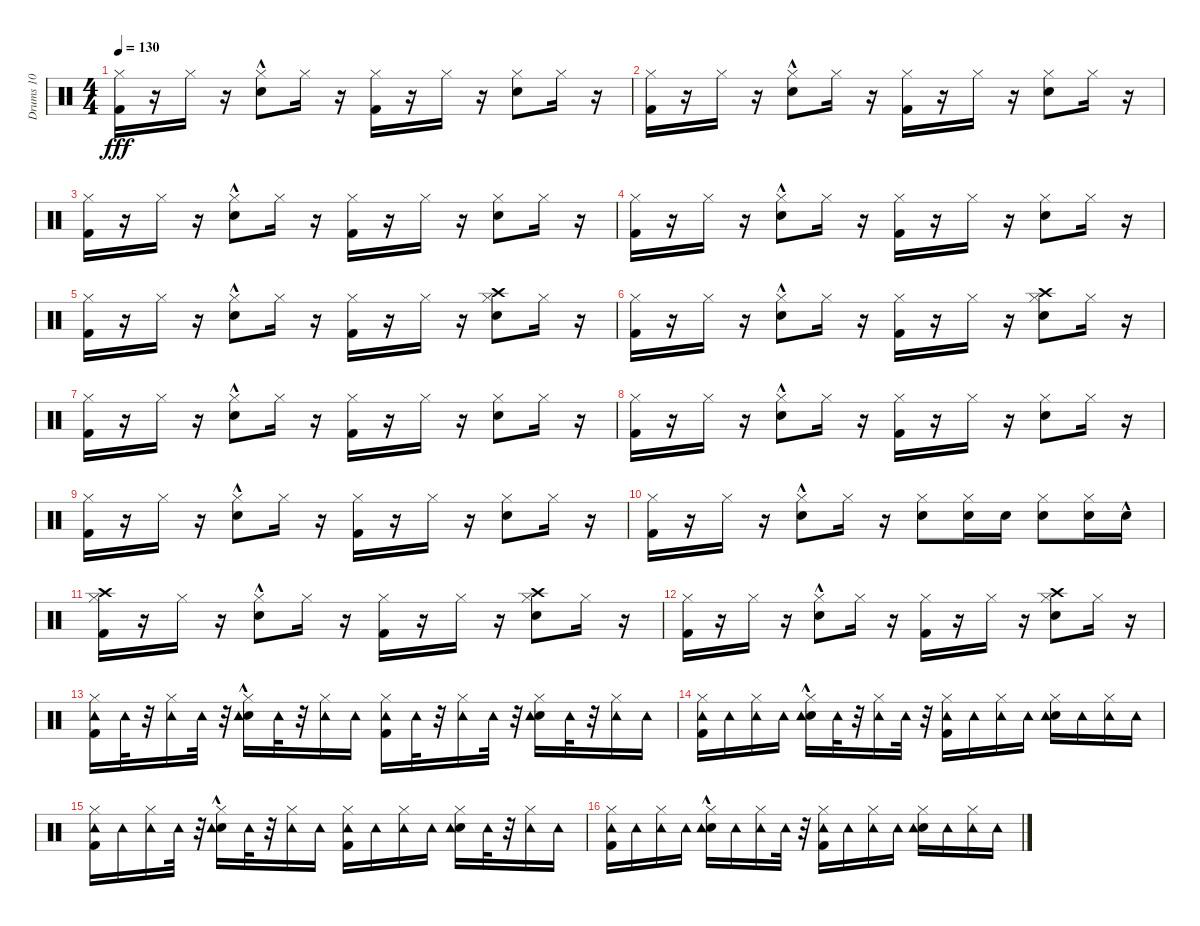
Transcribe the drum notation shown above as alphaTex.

\track ("Drums 10            " "Drums 10  ") {instrument percussion}
\staff {score}
\articulation defaults
\ts (4 4)
\tempo 130
\clef neutral
\ks c
("Kick (hit) 2" "Hi-Hat (closed)").16{dy fff} r.16 "Hi-Hat (closed)".16 r.16 ("Snare (hit) 2"{hac} "Hi-Hat (closed)").8 "Hi-Hat (closed)".16 r.16 ("Kick (hit) 2" "Hi-Hat (closed)").16 r.16 "Hi-Hat (closed)".16 r.16 ("Snare (hit) 2" "Hi-Hat (closed)").8 "Hi-Hat (closed)".16 r.16 |
("Kick (hit) 2" "Hi-Hat (closed)").16 r.16 "Hi-Hat (closed)".16 r.16 ("Snare (hit) 2"{hac} "Hi-Hat (closed)").8 "Hi-Hat (closed)".16 r.16 ("Kick (hit) 2" "Hi-Hat (closed)").16 r.16 "Hi-Hat (closed)".16 r.16 ("Snare (hit) 2" "Hi-Hat (closed)").8 "Hi-Hat (closed)".16 r.16 |
("Kick (hit) 2" "Hi-Hat (closed)").16 r.16 "Hi-Hat (closed)".16 r.16 ("Snare (hit) 2"{hac} "Hi-Hat (closed)").8 "Hi-Hat (closed)".16 r.16 ("Kick (hit) 2" "Hi-Hat (closed)").16 r.16 "Hi-Hat (closed)".16 r.16 ("Snare (hit) 2" "Hi-Hat (closed)").8 "Hi-Hat (closed)".16 r.16 |
("Kick (hit) 2" "Hi-Hat (closed)").16 r.16 "Hi-Hat (closed)".16 r.16 ("Snare (hit) 2"{hac} "Hi-Hat (closed)").8 "Hi-Hat (closed)".16 r.16 ("Kick (hit) 2" "Hi-Hat (closed)").16 r.16 "Hi-Hat (closed)".16 r.16 ("Snare (hit) 2" "Hi-Hat (closed)").8 "Hi-Hat (closed)".16 r.16 |
("Kick (hit) 2" "Hi-Hat (closed)").16 r.16 "Hi-Hat (closed)".16 r.16 ("Snare (hit) 2"{hac} "Hi-Hat (closed)").8 "Hi-Hat (closed)".16 r.16 ("Kick (hit) 2" "Hi-Hat (closed)").16 r.16 "Hi-Hat (closed)".16 r.16 ("Snare (hit) 2" "Hi-Hat (closed)" "Crash high (hit)").8 "Hi-Hat (closed)".16 r.16 |
("Kick (hit) 2" "Hi-Hat (closed)").16 r.16 "Hi-Hat (closed)".16 r.16 ("Snare (hit) 2"{hac} "Hi-Hat (closed)").8 "Hi-Hat (closed)".16 r.16 ("Kick (hit) 2" "Hi-Hat (closed)").16 r.16 "Hi-Hat (closed)".16 r.16 ("Snare (hit) 2" "Hi-Hat (closed)" "Crash high (hit)").8 "Hi-Hat (closed)".16 r.16 |
("Kick (hit) 2" "Hi-Hat (closed)").16 r.16 "Hi-Hat (closed)".16 r.16 ("Snare (hit) 2"{hac} "Hi-Hat (closed)").8 "Hi-Hat (closed)".16 r.16 ("Kick (hit) 2" "Hi-Hat (closed)").16 r.16 "Hi-Hat (closed)".16 r.16 ("Snare (hit) 2" "Hi-Hat (closed)").8 "Hi-Hat (closed)".16 r.16 |
("Kick (hit) 2" "Hi-Hat (closed)").16 r.16 "Hi-Hat (closed)".16 r.16 ("Snare (hit) 2"{hac} "Hi-Hat (closed)").8 "Hi-Hat (closed)".16 r.16 ("Kick (hit) 2" "Hi-Hat (closed)").16 r.16 "Hi-Hat (closed)".16 r.16 ("Snare (hit) 2" "Hi-Hat (closed)").8 "Hi-Hat (closed)".16 r.16 |
("Kick (hit) 2" "Hi-Hat (closed)").16 r.16 "Hi-Hat (closed)".16 r.16 ("Snare (hit) 2"{hac} "Hi-Hat (closed)").8 "Hi-Hat (closed)".16 r.16 ("Kick (hit) 2" "Hi-Hat (closed)").16 r.16 "Hi-Hat (closed)".16 r.16 ("Snare (hit) 2" "Hi-Hat (closed)").8 "Hi-Hat (closed)".16 r.16 |
("Kick (hit) 2" "Hi-Hat (closed)").16 r.16 "Hi-Hat (closed)".16 r.16 ("Snare (hit) 2"{hac} "Hi-Hat (closed)").8 "Hi-Hat (closed)".16 r.16 ("Snare (hit) 2" "Hi-Hat (closed)").8 ("Snare (hit) 2" "Hi-Hat (closed)").16 "Snare (hit) 2".16 ("Snare (hit) 2" "Hi-Hat (closed)").8 ("Snare (hit) 2" "Hi-Hat (closed)").16 "Snare (hit) 2"{hac}.16 |
("Kick (hit) 2" "Hi-Hat (closed)" "Crash high (hit)").16 r.16 "Hi-Hat (closed)".16 r.16 ("Snare (hit) 2"{hac} "Hi-Hat (closed)").8 "Hi-Hat (closed)".16 r.16 ("Kick (hit) 2" "Hi-Hat (closed)").16 r.16 "Hi-Hat (closed)".16 r.16 ("Snare (hit) 2" "Hi-Hat (closed)" "Crash high (hit)").8 "Hi-Hat (closed)".16 r.16 |
("Kick (hit) 2" "Hi-Hat (closed)").16 r.16 "Hi-Hat (closed)".16 r.16 ("Snare (hit) 2"{hac} "Hi-Hat (closed)").8 "Hi-Hat (closed)".16 r.16 ("Kick (hit) 2" "Hi-Hat (closed)").16 r.16 "Hi-Hat (closed)".16 r.16 ("Snare (hit) 2" "Hi-Hat (closed)" "Crash high (hit)").8 "Hi-Hat (closed)".16 r.16 |
("Kick (hit) 2" "Tambourine (hit)" "Hi-Hat (closed)").16 "Tambourine (hit)".32 r.32 ("Tambourine (hit)" "Hi-Hat (closed)").16 "Tambourine (hit)".32 r.32 ("Snare (hit) 2"{hac} "Tambourine (hit)" "Hi-Hat (closed)").16 "Tambourine (hit)".32 r.32 ("Tambourine (hit)" "Hi-Hat (closed)").16 "Tambourine (hit)".16 ("Kick (hit) 2" "Tambourine (hit)" "Hi-Hat (closed)").16 "Tambourine (hit)".32 r.32 ("Tambourine (hit)" "Hi-Hat (closed)").16 "Tambourine (hit)".32 r.32 ("Snare (hit) 2" "Tambourine (hit)" "Hi-Hat (closed)").16 "Tambourine (hit)".32 r.32 ("Tambourine (hit)" "Hi-Hat (closed)").16 "Tambourine (hit)".16 |
("Kick (hit) 2" "Tambourine (hit)" "Hi-Hat (closed)").16 "Tambourine (hit)".16 ("Tambourine (hit)" "Hi-Hat (closed)").16 "Tambourine (hit)".16 ("Snare (hit) 2"{hac} "Tambourine (hit)" "Hi-Hat (closed)").16 "Tambourine (hit)".32 r.32 ("Tambourine (hit)" "Hi-Hat (closed)").16 "Tambourine (hit)".32 r.32 ("Kick (hit) 2" "Tambourine (hit)" "Hi-Hat (closed)").16 "Tambourine (hit)".16 ("Tambourine (hit)" "Hi-Hat (closed)").16 "Tambourine (hit)".16 ("Snare (hit) 2" "Tambourine (hit)" "Hi-Hat (closed)").16 "Tambourine (hit)".16 ("Tambourine (hit)" "Hi-Hat (closed)").16 "Tambourine (hit)".16 |
("Kick (hit) 2" "Tambourine (hit)" "Hi-Hat (closed)").16 "Tambourine (hit)".16 ("Tambourine (hit)" "Hi-Hat (closed)").16 "Tambourine (hit)".32 r.32 ("Snare (hit) 2"{hac} "Tambourine (hit)" "Hi-Hat (closed)").16 "Tambourine (hit)".32 r.32 ("Tambourine (hit)" "Hi-Hat (closed)").16 "Tambourine (hit)".16 ("Kick (hit) 2" "Tambourine (hit)" "Hi-Hat (closed)").16 "Tambourine (hit)".16 ("Tambourine (hit)" "Hi-Hat (closed)").16 "Tambourine (hit)".16 ("Snare (hit) 2" "Tambourine (hit)" "Hi-Hat (closed)").16 "Tambourine (hit)".32 r.32 ("Tambourine (hit)" "Hi-Hat (closed)").16 "Tambourine (hit)".16 |
("Kick (hit) 2" "Tambourine (hit)" "Hi-Hat (closed)").16 "Tambourine (hit)".16 ("Tambourine (hit)" "Hi-Hat (closed)").16 "Tambourine (hit)".16 ("Snare (hit) 2"{hac} "Tambourine (hit)" "Hi-Hat (closed)").16 "Tambourine (hit)".16 ("Tambourine (hit)" "Hi-Hat (closed)").16 "Tambourine (hit)".32 r.32 ("Kick (hit) 2" "Tambourine (hit)" "Hi-Hat (closed)").16 "Tambourine (hit)".16 ("Tambourine (hit)" "Hi-Hat (closed)").16 "Tambourine (hit)".16 ("Snare (hit) 2" "Tambourine (hit)" "Hi-Hat (closed)").16 "Tambourine (hit)".16 ("Tambourine (hit)" "Hi-Hat (closed)").16 "Tambourine (hit)".16
